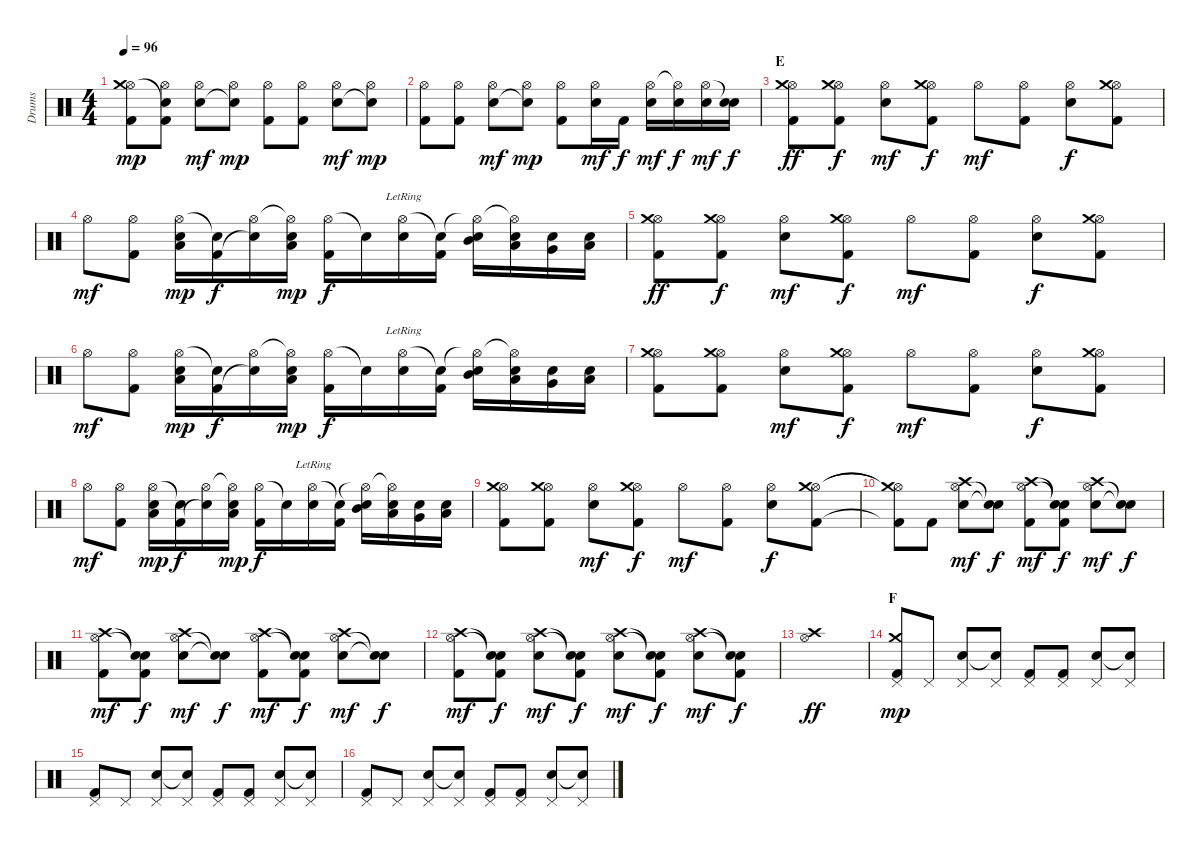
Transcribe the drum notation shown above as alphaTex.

\track ("Drums" "Drums") {instrument percussion}
\staff {score}
\articulation defaults
\ts (4 4)
\tempo 96
\clef neutral
\ks c
("Hi-Hat (open)" "Kick (hit) 2" "Crash medium (hit)").8{dy mp} ("Hi-Hat (open)" "Kick (hit) 2" "Snare (hit)"{t}).8 ("Hi-Hat (open)" "Electric Snare (hit)").8{dy mf} ("Hi-Hat (open)" "Snare (hit)"{t}).8{dy mp} ("Hi-Hat (open)" "Kick (hit) 2").8 ("Hi-Hat (open)" "Kick (hit) 2").8 ("Hi-Hat (open)" "Electric Snare (hit)").8{dy mf} ("Hi-Hat (open)" "Snare (hit)"{t}).8{dy mp} |
("Hi-Hat (open)" "Kick (hit) 2").8 ("Hi-Hat (open)" "Kick (hit) 2").8 ("Hi-Hat (open)" "Electric Snare (hit)").8{dy mf} ("Hi-Hat (open)" "Snare (hit)"{t}).8{dy mp} ("Hi-Hat (open)" "Kick (hit) 2").8 ("Hi-Hat (open)" "Electric Snare (hit)").16{dy mf} "Kick (hit) 2".16{dy f} ("Hi-Hat (open)" "Electric Snare (hit)").16{dy mf} ("Hi-Hat (open)"{t} "Electric Snare (hit)").16{dy f} ("Hi-Hat (open)" "Electric Snare (hit)").16{dy mf} ("Snare (hit)"{t} "Electric Snare (hit)").16{dy f} |
\section ("" "E")
("Hi-Hat (open)" "Kick (hit) 2" "Crash medium (hit)").8{dy ff} ("Hi-Hat (open)" "Kick (hit) 2" "Crash medium (hit)").8{dy f} ("Hi-Hat (open)" "Electric Snare (hit)").8{dy mf} ("Hi-Hat (open)" "Kick (hit) 2" "Crash medium (hit)").8{dy f} "Hi-Hat (open)".8{dy mf} ("Hi-Hat (open)" "Kick (hit) 2").8 ("Hi-Hat (open)" "Electric Snare (hit)").8{dy f} ("Hi-Hat (open)" "Kick (hit) 2" "Crash medium (hit)").8 |
"Hi-Hat (open)".8{dy mf} ("Hi-Hat (open)" "Kick (hit) 2").8 ("Hi-Hat (open)" "Electric Snare (hit)" "Low Tom (hit)").16{dy mp} ("Snare (hit)"{t} "Kick (hit) 2").16{dy f} ("Hi-Hat (open)" "Snare (hit)"{t}).16 ("Hi-Hat (open)"{t} "Electric Snare (hit)" "Low Tom (hit)").16{dy mp} ("Hi-Hat (open)" "Kick (hit) 2").16{dy f} "Snare (hit)"{t}.16 ("Hi-Hat (open)"{lr} "Electric Snare (hit)").16 ("Snare (hit)"{t} "Kick (hit) 2").16 ("Hi-Hat (open)"{t} "Electric Snare (hit)" "Mid Tom (hit)").16 ("Hi-Hat (open)"{t} "Electric Snare (hit)" "Low Tom (hit)").16 ("Electric Snare (hit)" "Very Low Tom (hit)").16 ("Electric Snare (hit)" "Low Floor Tom (hit)").16 |
("Hi-Hat (open)" "Kick (hit) 2" "Crash medium (hit)").8{dy ff} ("Hi-Hat (open)" "Kick (hit) 2" "Crash medium (hit)").8{dy f} ("Hi-Hat (open)" "Electric Snare (hit)").8{dy mf} ("Hi-Hat (open)" "Kick (hit) 2" "Crash medium (hit)").8{dy f} "Hi-Hat (open)".8{dy mf} ("Hi-Hat (open)" "Kick (hit) 2").8 ("Hi-Hat (open)" "Electric Snare (hit)").8{dy f} ("Hi-Hat (open)" "Kick (hit) 2" "Crash medium (hit)").8 |
"Hi-Hat (open)".8{dy mf} ("Hi-Hat (open)" "Kick (hit) 2").8 ("Hi-Hat (open)" "Electric Snare (hit)" "Low Tom (hit)").16{dy mp} ("Snare (hit)"{t} "Kick (hit) 2").16{dy f} ("Hi-Hat (open)" "Snare (hit)"{t}).16 ("Hi-Hat (open)"{t} "Electric Snare (hit)" "Low Tom (hit)").16{dy mp} ("Hi-Hat (open)" "Kick (hit) 2").16{dy f} "Snare (hit)"{t}.16 ("Hi-Hat (open)"{lr} "Electric Snare (hit)").16 ("Snare (hit)"{t} "Kick (hit) 2").16 ("Hi-Hat (open)"{t} "Electric Snare (hit)" "Mid Tom (hit)").16 ("Hi-Hat (open)"{t} "Electric Snare (hit)" "Low Tom (hit)").16 ("Electric Snare (hit)" "Very Low Tom (hit)").16 ("Electric Snare (hit)" "Low Floor Tom (hit)").16 |
("Hi-Hat (open)" "Kick (hit) 2" "Crash medium (hit)").8 ("Hi-Hat (open)" "Kick (hit) 2" "Crash medium (hit)").8 ("Hi-Hat (open)" "Electric Snare (hit)").8{dy mf} ("Hi-Hat (open)" "Kick (hit) 2" "Crash medium (hit)").8{dy f} "Hi-Hat (open)".8{dy mf} ("Hi-Hat (open)" "Kick (hit) 2").8 ("Hi-Hat (open)" "Electric Snare (hit)").8{dy f} ("Hi-Hat (open)" "Kick (hit) 2" "Crash medium (hit)").8 |
"Hi-Hat (open)".8{dy mf} ("Hi-Hat (open)" "Kick (hit) 2").8 ("Hi-Hat (open)" "Electric Snare (hit)" "Low Tom (hit)").16{dy mp} ("Snare (hit)"{t} "Kick (hit) 2").16{dy f} ("Hi-Hat (open)" "Snare (hit)"{t}).16 ("Hi-Hat (open)"{t} "Electric Snare (hit)" "Low Tom (hit)").16{dy mp} ("Hi-Hat (open)" "Kick (hit) 2").16{dy f} "Snare (hit)"{t}.16 ("Hi-Hat (open)"{lr} "Electric Snare (hit)").16 ("Snare (hit)"{t} "Kick (hit) 2").16 ("Hi-Hat (open)"{t} "Electric Snare (hit)" "Mid Tom (hit)").16 ("Hi-Hat (open)"{t} "Electric Snare (hit)" "Low Tom (hit)").16 ("Electric Snare (hit)" "Very Low Tom (hit)").16 ("Electric Snare (hit)" "Low Floor Tom (hit)").16 |
("Hi-Hat (open)" "Kick (hit) 2" "Crash medium (hit)").8 ("Hi-Hat (open)" "Kick (hit) 2" "Crash medium (hit)").8 ("Hi-Hat (open)" "Electric Snare (hit)").8{dy mf} ("Hi-Hat (open)" "Kick (hit) 2" "Crash medium (hit)").8{dy f} "Hi-Hat (open)".8{dy mf} ("Hi-Hat (open)" "Kick (hit) 2").8 ("Hi-Hat (open)" "Electric Snare (hit)").8{dy f} ("Hi-Hat (open)" "Kick (hit) 2" "Crash medium (hit)").8 |
("Hi-Hat (open)"{t} "Kick (hit) 2"{t} "Crash medium (hit)"{t}).8 "Kick (hit) 2".8 ("Hi-Hat (open)" "Electric Snare (hit)" "Crash high (hit)").8{dy mf} ("Snare (hit)"{t} "Snare (hit)"{t}).8{dy f} ("Hi-Hat (open)" "Kick (hit) 2" "Crash high (hit)").8{dy mf} ("Snare (hit)"{t} "Kick (hit) 2" "Snare (hit)"{t}).8{dy f} ("Hi-Hat (open)" "Electric Snare (hit)" "Crash high (hit)").8{dy mf} ("Snare (hit)"{t} "Snare (hit)"{t}).8{dy f} |
("Hi-Hat (open)" "Kick (hit) 2" "Crash high (hit)").8{dy mf} ("Snare (hit)"{t} "Kick (hit) 2" "Snare (hit)"{t}).8{dy f} ("Hi-Hat (open)" "Electric Snare (hit)" "Crash high (hit)").8{dy mf} ("Snare (hit)"{t} "Snare (hit)"{t}).8{dy f} ("Hi-Hat (open)" "Kick (hit) 2" "Crash high (hit)").8{dy mf} ("Snare (hit)"{t} "Kick (hit) 2" "Snare (hit)"{t}).8{dy f} ("Hi-Hat (open)" "Electric Snare (hit)" "Crash high (hit)").8{dy mf} ("Snare (hit)"{t} "Snare (hit)"{t}).8{dy f} |
("Hi-Hat (open)" "Kick (hit) 2" "Crash high (hit)").8{dy mf} ("Snare (hit)"{t} "Kick (hit) 2" "Snare (hit)"{t}).8{dy f} ("Hi-Hat (open)" "Electric Snare (hit)" "Crash high (hit)").8{dy mf} ("Snare (hit)"{t} "Kick (hit) 2" "Snare (hit)"{t}).8{dy f} ("Hi-Hat (open)" "Electric Snare (hit)" "Crash high (hit)").8{dy mf} ("Snare (hit)"{t} "Kick (hit) 2" "Snare (hit)"{t}).8{dy f} ("Hi-Hat (open)" "Electric Snare (hit)" "Crash high (hit)").8{dy mf} ("Snare (hit)"{t} "Kick (hit) 2" "Snare (hit)"{t}).8{dy f} |
("Hi-Hat (open)" "Crash high (hit)").1{dy ff} |
\section ("" "F")
("Pedal Hi-Hat (hit)" "Kick (hit) 2" "Crash medium (hit)").8{dy mp} "Pedal Hi-Hat (hit)".8 ("Pedal Hi-Hat (hit)" "Electric Snare (hit)").8 ("Pedal Hi-Hat (hit)" "Snare (hit)"{t}).8 ("Pedal Hi-Hat (hit)" "Kick (hit) 2").8 ("Pedal Hi-Hat (hit)" "Kick (hit) 2").8 ("Pedal Hi-Hat (hit)" "Electric Snare (hit)").8 ("Pedal Hi-Hat (hit)" "Snare (hit)"{t}).8 |
("Pedal Hi-Hat (hit)" "Kick (hit) 2").8 "Pedal Hi-Hat (hit)".8 ("Pedal Hi-Hat (hit)" "Electric Snare (hit)").8 ("Pedal Hi-Hat (hit)" "Snare (hit)"{t}).8 ("Pedal Hi-Hat (hit)" "Kick (hit) 2").8 ("Pedal Hi-Hat (hit)" "Kick (hit) 2").8 ("Pedal Hi-Hat (hit)" "Electric Snare (hit)").8 ("Pedal Hi-Hat (hit)" "Snare (hit)"{t}).8 |
("Pedal Hi-Hat (hit)" "Kick (hit) 2").8 "Pedal Hi-Hat (hit)".8 ("Pedal Hi-Hat (hit)" "Electric Snare (hit)").8 ("Pedal Hi-Hat (hit)" "Snare (hit)"{t}).8 ("Pedal Hi-Hat (hit)" "Kick (hit) 2").8 ("Pedal Hi-Hat (hit)" "Kick (hit) 2").8 ("Pedal Hi-Hat (hit)" "Electric Snare (hit)").8 ("Pedal Hi-Hat (hit)" "Snare (hit)"{t}).8
